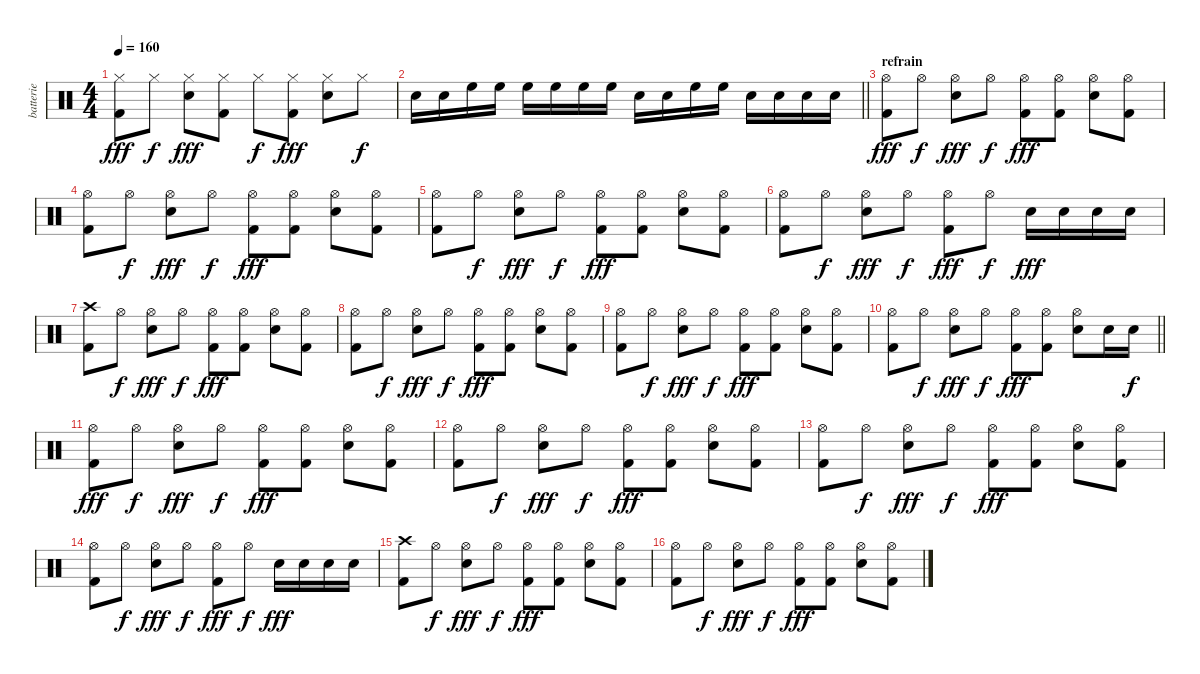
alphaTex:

\track ("batterie" "batterie") {instrument percussion}
\staff {score}
\articulation defaults
\ts (4 4)
\tempo 160
\clef neutral
\ks c
("Hi-Hat (closed)" "Kick (hit) 2").8{dy fff} "Hi-Hat (closed)".8{dy f} ("Hi-Hat (closed)" "Electric Snare (hit)").8{dy fff} ("Hi-Hat (closed)" "Kick (hit) 2").8 "Hi-Hat (closed)".8{dy f} ("Hi-Hat (closed)" "Kick (hit) 2").8{dy fff} ("Hi-Hat (closed)" "Electric Snare (hit)").8 "Hi-Hat (closed)".8{dy f} |
\barLineRight lightlight "Electric Snare (hit)".16 "Electric Snare (hit)".16 "High Floor Tom (hit)".16 "High Floor Tom (hit)".16 "High Floor Tom (hit)".16 "High Floor Tom (hit)".16 "High Floor Tom (hit)".16 "High Floor Tom (hit)".16 "Electric Snare (hit)".16 "Electric Snare (hit)".16 "High Floor Tom (hit)".16 "High Floor Tom (hit)".16 "Electric Snare (hit)".16 "Electric Snare (hit)".16 "Electric Snare (hit)".16 "Electric Snare (hit)".16
|
\section ("" "refrain")
("Hi-Hat (open)" "Kick (hit) 2").8{dy fff} "Hi-Hat (open)".8{dy f} ("Hi-Hat (open)" "Electric Snare (hit)").8{dy fff} "Hi-Hat (open)".8{dy f} ("Hi-Hat (open)" "Kick (hit) 2").8{dy fff} ("Hi-Hat (open)" "Kick (hit) 2").8 ("Hi-Hat (open)" "Electric Snare (hit)").8 ("Hi-Hat (open)" "Kick (hit) 2").8 |
("Hi-Hat (open)" "Kick (hit) 2").8 "Hi-Hat (open)".8{dy f} ("Hi-Hat (open)" "Electric Snare (hit)").8{dy fff} "Hi-Hat (open)".8{dy f} ("Hi-Hat (open)" "Kick (hit) 2").8{dy fff} ("Hi-Hat (open)" "Kick (hit) 2").8 ("Hi-Hat (open)" "Electric Snare (hit)").8 ("Hi-Hat (open)" "Kick (hit) 2").8 |
("Hi-Hat (open)" "Kick (hit) 2").8 "Hi-Hat (open)".8{dy f} ("Hi-Hat (open)" "Electric Snare (hit)").8{dy fff} "Hi-Hat (open)".8{dy f} ("Hi-Hat (open)" "Kick (hit) 2").8{dy fff} ("Hi-Hat (open)" "Kick (hit) 2").8 ("Hi-Hat (open)" "Electric Snare (hit)").8 ("Hi-Hat (open)" "Kick (hit) 2").8 |
("Hi-Hat (open)" "Kick (hit) 2").8 "Hi-Hat (open)".8{dy f} ("Hi-Hat (open)" "Electric Snare (hit)").8{dy fff} "Hi-Hat (open)".8{dy f} ("Hi-Hat (open)" "Kick (hit) 2").8{dy fff} "Hi-Hat (open)".8{dy f} "Electric Snare (hit)".16{dy fff} "Electric Snare (hit)".16 "Electric Snare (hit)".16 "Electric Snare (hit)".16 |
("Crash high (hit)" "Kick (hit) 2").8 "Hi-Hat (open)".8{dy f} ("Hi-Hat (open)" "Electric Snare (hit)").8{dy fff} "Hi-Hat (open)".8{dy f} ("Hi-Hat (open)" "Kick (hit) 2").8{dy fff} ("Hi-Hat (open)" "Kick (hit) 2").8 ("Hi-Hat (open)" "Electric Snare (hit)").8 ("Hi-Hat (open)" "Kick (hit) 2").8 |
("Hi-Hat (open)" "Kick (hit) 2").8 "Hi-Hat (open)".8{dy f} ("Hi-Hat (open)" "Electric Snare (hit)").8{dy fff} "Hi-Hat (open)".8{dy f} ("Hi-Hat (open)" "Kick (hit) 2").8{dy fff} ("Hi-Hat (open)" "Kick (hit) 2").8 ("Hi-Hat (open)" "Electric Snare (hit)").8 ("Hi-Hat (open)" "Kick (hit) 2").8 |
("Hi-Hat (open)" "Kick (hit) 2").8 "Hi-Hat (open)".8{dy f} ("Hi-Hat (open)" "Electric Snare (hit)").8{dy fff} "Hi-Hat (open)".8{dy f} ("Hi-Hat (open)" "Kick (hit) 2").8{dy fff} ("Hi-Hat (open)" "Kick (hit) 2").8 ("Hi-Hat (open)" "Electric Snare (hit)").8 ("Hi-Hat (open)" "Kick (hit) 2").8 |
\barLineRight lightlight
("Hi-Hat (open)" "Kick (hit) 2").8 "Hi-Hat (open)".8{dy f} ("Hi-Hat (open)" "Electric Snare (hit)").8{dy fff} "Hi-Hat (open)".8{dy f} ("Hi-Hat (open)" "Kick (hit) 2").8{dy fff} ("Hi-Hat (open)" "Kick (hit) 2").8 ("Hi-Hat (open)" "Electric Snare (hit)").8 "Electric Snare (hit)".16 "Electric Snare (hit)".16{dy f} |
("Hi-Hat (open)" "Kick (hit) 2").8{dy fff} "Hi-Hat (open)".8{dy f} ("Hi-Hat (open)" "Electric Snare (hit)").8{dy fff} "Hi-Hat (open)".8{dy f} ("Hi-Hat (open)" "Kick (hit) 2").8{dy fff} ("Hi-Hat (open)" "Kick (hit) 2").8 ("Hi-Hat (open)" "Electric Snare (hit)").8 ("Hi-Hat (open)" "Kick (hit) 2").8 |
("Hi-Hat (open)" "Kick (hit) 2").8 "Hi-Hat (open)".8{dy f} ("Hi-Hat (open)" "Electric Snare (hit)").8{dy fff} "Hi-Hat (open)".8{dy f} ("Hi-Hat (open)" "Kick (hit) 2").8{dy fff} ("Hi-Hat (open)" "Kick (hit) 2").8 ("Hi-Hat (open)" "Electric Snare (hit)").8 ("Hi-Hat (open)" "Kick (hit) 2").8 |
("Hi-Hat (open)" "Kick (hit) 2").8 "Hi-Hat (open)".8{dy f} ("Hi-Hat (open)" "Electric Snare (hit)").8{dy fff} "Hi-Hat (open)".8{dy f} ("Hi-Hat (open)" "Kick (hit) 2").8{dy fff} ("Hi-Hat (open)" "Kick (hit) 2").8 ("Hi-Hat (open)" "Electric Snare (hit)").8 ("Hi-Hat (open)" "Kick (hit) 2").8 |
("Hi-Hat (open)" "Kick (hit) 2").8 "Hi-Hat (open)".8{dy f} ("Hi-Hat (open)" "Electric Snare (hit)").8{dy fff} "Hi-Hat (open)".8{dy f} ("Hi-Hat (open)" "Kick (hit) 2").8{dy fff} "Hi-Hat (open)".8{dy f} "Electric Snare (hit)".16{dy fff} "Electric Snare (hit)".16 "Electric Snare (hit)".16 "Electric Snare (hit)".16 |
("Crash high (hit)" "Kick (hit) 2").8 "Hi-Hat (open)".8{dy f} ("Hi-Hat (open)" "Electric Snare (hit)").8{dy fff} "Hi-Hat (open)".8{dy f} ("Hi-Hat (open)" "Kick (hit) 2").8{dy fff} ("Hi-Hat (open)" "Kick (hit) 2").8 ("Hi-Hat (open)" "Electric Snare (hit)").8 ("Hi-Hat (open)" "Kick (hit) 2").8 |
("Hi-Hat (open)" "Kick (hit) 2").8 "Hi-Hat (open)".8{dy f} ("Hi-Hat (open)" "Electric Snare (hit)").8{dy fff} "Hi-Hat (open)".8{dy f} ("Hi-Hat (open)" "Kick (hit) 2").8{dy fff} ("Hi-Hat (open)" "Kick (hit) 2").8 ("Hi-Hat (open)" "Electric Snare (hit)").8 ("Hi-Hat (open)" "Kick (hit) 2").8
